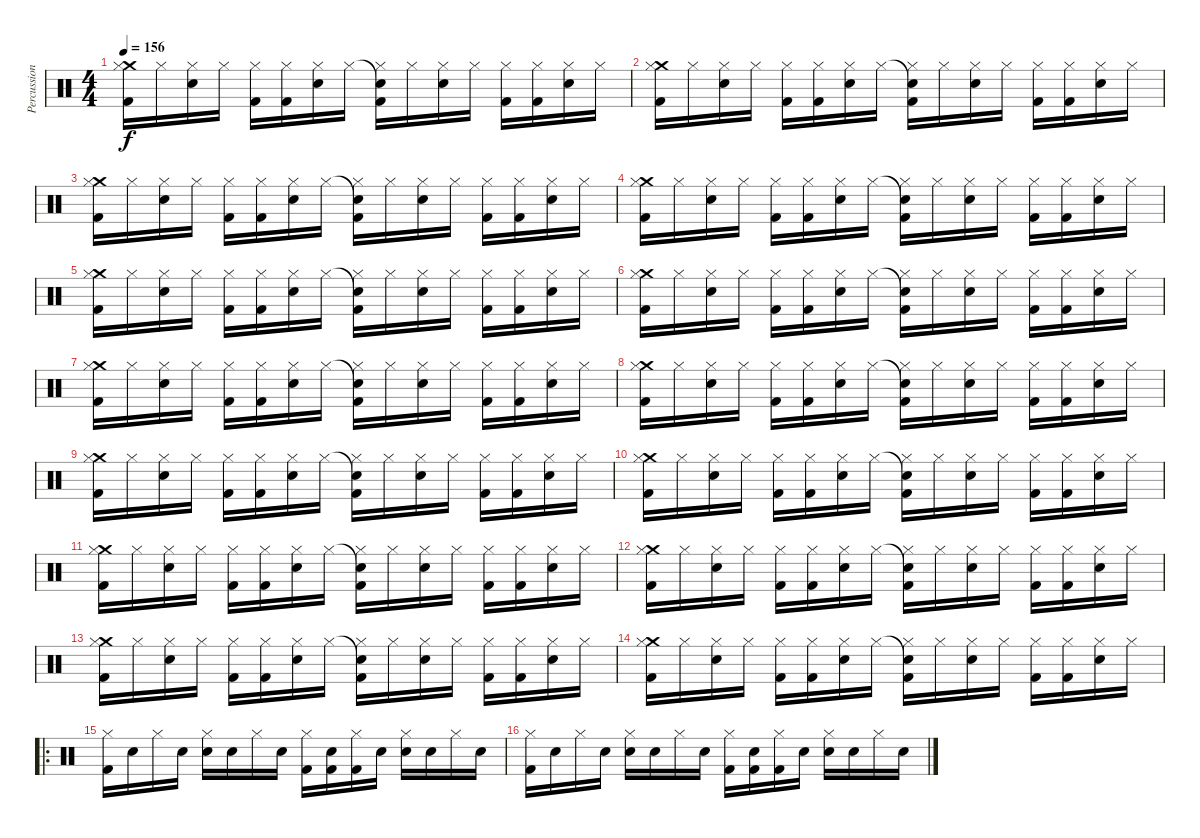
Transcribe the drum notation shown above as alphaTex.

\track ("Percussion" "Percussion") {instrument percussion}
\staff {score}
\articulation defaults
\ts (4 4)
\tempo 156
\clef neutral
\ks c
("Crash medium (hit)" "Hi-Hat (closed)" "Kick (hit) 2").16{dy f} "Hi-Hat (closed)".16 ("Hi-Hat (closed)" "Electric Snare (hit)").16 "Hi-Hat (closed)".16 ("Hi-Hat (closed)" "Kick (hit) 2").16 ("Hi-Hat (closed)" "Kick (hit) 2").16 ("Hi-Hat (closed)" "Electric Snare (hit)").16 "Hi-Hat (closed)".16 ("Snare (hit)"{t} "Hi-Hat (closed)" "Kick (hit) 2").16 "Hi-Hat (closed)".16 ("Hi-Hat (closed)" "Electric Snare (hit)").16 "Hi-Hat (closed)".16 ("Hi-Hat (closed)" "Kick (hit) 2").16 ("Hi-Hat (closed)" "Kick (hit) 2").16 ("Hi-Hat (closed)" "Electric Snare (hit)").16 "Hi-Hat (closed)".16 |
("Crash medium (hit)" "Hi-Hat (closed)" "Kick (hit) 2").16 "Hi-Hat (closed)".16 ("Hi-Hat (closed)" "Electric Snare (hit)").16 "Hi-Hat (closed)".16 ("Hi-Hat (closed)" "Kick (hit) 2").16 ("Hi-Hat (closed)" "Kick (hit) 2").16 ("Hi-Hat (closed)" "Electric Snare (hit)").16 "Hi-Hat (closed)".16 ("Snare (hit)"{t} "Hi-Hat (closed)" "Kick (hit) 2").16 "Hi-Hat (closed)".16 ("Hi-Hat (closed)" "Electric Snare (hit)").16 "Hi-Hat (closed)".16 ("Hi-Hat (closed)" "Kick (hit) 2").16 ("Hi-Hat (closed)" "Kick (hit) 2").16 ("Hi-Hat (closed)" "Electric Snare (hit)").16 "Hi-Hat (closed)".16 |
("Crash medium (hit)" "Hi-Hat (closed)" "Kick (hit) 2").16 "Hi-Hat (closed)".16 ("Hi-Hat (closed)" "Electric Snare (hit)").16 "Hi-Hat (closed)".16 ("Hi-Hat (closed)" "Kick (hit) 2").16 ("Hi-Hat (closed)" "Kick (hit) 2").16 ("Hi-Hat (closed)" "Electric Snare (hit)").16 "Hi-Hat (closed)".16 ("Snare (hit)"{t} "Hi-Hat (closed)" "Kick (hit) 2").16 "Hi-Hat (closed)".16 ("Hi-Hat (closed)" "Electric Snare (hit)").16 "Hi-Hat (closed)".16 ("Hi-Hat (closed)" "Kick (hit) 2").16 ("Hi-Hat (closed)" "Kick (hit) 2").16 ("Hi-Hat (closed)" "Electric Snare (hit)").16 "Hi-Hat (closed)".16 |
("Crash medium (hit)" "Hi-Hat (closed)" "Kick (hit) 2").16 "Hi-Hat (closed)".16 ("Hi-Hat (closed)" "Electric Snare (hit)").16 "Hi-Hat (closed)".16 ("Hi-Hat (closed)" "Kick (hit) 2").16 ("Hi-Hat (closed)" "Kick (hit) 2").16 ("Hi-Hat (closed)" "Electric Snare (hit)").16 "Hi-Hat (closed)".16 ("Snare (hit)"{t} "Hi-Hat (closed)" "Kick (hit) 2").16 "Hi-Hat (closed)".16 ("Hi-Hat (closed)" "Electric Snare (hit)").16 "Hi-Hat (closed)".16 ("Hi-Hat (closed)" "Kick (hit) 2").16 ("Hi-Hat (closed)" "Kick (hit) 2").16 ("Hi-Hat (closed)" "Electric Snare (hit)").16 "Hi-Hat (closed)".16 |
("Crash medium (hit)" "Hi-Hat (closed)" "Kick (hit) 2").16 "Hi-Hat (closed)".16 ("Hi-Hat (closed)" "Electric Snare (hit)").16 "Hi-Hat (closed)".16 ("Hi-Hat (closed)" "Kick (hit) 2").16 ("Hi-Hat (closed)" "Kick (hit) 2").16 ("Hi-Hat (closed)" "Electric Snare (hit)").16 "Hi-Hat (closed)".16 ("Snare (hit)"{t} "Hi-Hat (closed)" "Kick (hit) 2").16 "Hi-Hat (closed)".16 ("Hi-Hat (closed)" "Electric Snare (hit)").16 "Hi-Hat (closed)".16 ("Hi-Hat (closed)" "Kick (hit) 2").16 ("Hi-Hat (closed)" "Kick (hit) 2").16 ("Hi-Hat (closed)" "Electric Snare (hit)").16 "Hi-Hat (closed)".16 |
("Crash medium (hit)" "Hi-Hat (closed)" "Kick (hit) 2").16 "Hi-Hat (closed)".16 ("Hi-Hat (closed)" "Electric Snare (hit)").16 "Hi-Hat (closed)".16 ("Hi-Hat (closed)" "Kick (hit) 2").16 ("Hi-Hat (closed)" "Kick (hit) 2").16 ("Hi-Hat (closed)" "Electric Snare (hit)").16 "Hi-Hat (closed)".16 ("Snare (hit)"{t} "Hi-Hat (closed)" "Kick (hit) 2").16 "Hi-Hat (closed)".16 ("Hi-Hat (closed)" "Electric Snare (hit)").16 "Hi-Hat (closed)".16 ("Hi-Hat (closed)" "Kick (hit) 2").16 ("Hi-Hat (closed)" "Kick (hit) 2").16 ("Hi-Hat (closed)" "Electric Snare (hit)").16 "Hi-Hat (closed)".16 |
("Crash medium (hit)" "Hi-Hat (closed)" "Kick (hit) 2").16 "Hi-Hat (closed)".16 ("Hi-Hat (closed)" "Electric Snare (hit)").16 "Hi-Hat (closed)".16 ("Hi-Hat (closed)" "Kick (hit) 2").16 ("Hi-Hat (closed)" "Kick (hit) 2").16 ("Hi-Hat (closed)" "Electric Snare (hit)").16 "Hi-Hat (closed)".16 ("Snare (hit)"{t} "Hi-Hat (closed)" "Kick (hit) 2").16 "Hi-Hat (closed)".16 ("Hi-Hat (closed)" "Electric Snare (hit)").16 "Hi-Hat (closed)".16 ("Hi-Hat (closed)" "Kick (hit) 2").16 ("Hi-Hat (closed)" "Kick (hit) 2").16 ("Hi-Hat (closed)" "Electric Snare (hit)").16 "Hi-Hat (closed)".16 |
("Crash medium (hit)" "Hi-Hat (closed)" "Kick (hit) 2").16 "Hi-Hat (closed)".16 ("Hi-Hat (closed)" "Electric Snare (hit)").16 "Hi-Hat (closed)".16 ("Hi-Hat (closed)" "Kick (hit) 2").16 ("Hi-Hat (closed)" "Kick (hit) 2").16 ("Hi-Hat (closed)" "Electric Snare (hit)").16 "Hi-Hat (closed)".16 ("Snare (hit)"{t} "Hi-Hat (closed)" "Kick (hit) 2").16 "Hi-Hat (closed)".16 ("Hi-Hat (closed)" "Electric Snare (hit)").16 "Hi-Hat (closed)".16 ("Hi-Hat (closed)" "Kick (hit) 2").16 ("Hi-Hat (closed)" "Kick (hit) 2").16 ("Hi-Hat (closed)" "Electric Snare (hit)").16 "Hi-Hat (closed)".16 |
("Crash medium (hit)" "Hi-Hat (closed)" "Kick (hit) 2").16 "Hi-Hat (closed)".16 ("Hi-Hat (closed)" "Electric Snare (hit)").16 "Hi-Hat (closed)".16 ("Hi-Hat (closed)" "Kick (hit) 2").16 ("Hi-Hat (closed)" "Kick (hit) 2").16 ("Hi-Hat (closed)" "Electric Snare (hit)").16 "Hi-Hat (closed)".16 ("Snare (hit)"{t} "Hi-Hat (closed)" "Kick (hit) 2").16 "Hi-Hat (closed)".16 ("Hi-Hat (closed)" "Electric Snare (hit)").16 "Hi-Hat (closed)".16 ("Hi-Hat (closed)" "Kick (hit) 2").16 ("Hi-Hat (closed)" "Kick (hit) 2").16 ("Hi-Hat (closed)" "Electric Snare (hit)").16 "Hi-Hat (closed)".16 |
("Crash medium (hit)" "Hi-Hat (closed)" "Kick (hit) 2").16 "Hi-Hat (closed)".16 ("Hi-Hat (closed)" "Electric Snare (hit)").16 "Hi-Hat (closed)".16 ("Hi-Hat (closed)" "Kick (hit) 2").16 ("Hi-Hat (closed)" "Kick (hit) 2").16 ("Hi-Hat (closed)" "Electric Snare (hit)").16 "Hi-Hat (closed)".16 ("Snare (hit)"{t} "Hi-Hat (closed)" "Kick (hit) 2").16 "Hi-Hat (closed)".16 ("Hi-Hat (closed)" "Electric Snare (hit)").16 "Hi-Hat (closed)".16 ("Hi-Hat (closed)" "Kick (hit) 2").16 ("Hi-Hat (closed)" "Kick (hit) 2").16 ("Hi-Hat (closed)" "Electric Snare (hit)").16 "Hi-Hat (closed)".16 |
("Crash medium (hit)" "Hi-Hat (closed)" "Kick (hit) 2").16 "Hi-Hat (closed)".16 ("Hi-Hat (closed)" "Electric Snare (hit)").16 "Hi-Hat (closed)".16 ("Hi-Hat (closed)" "Kick (hit) 2").16 ("Hi-Hat (closed)" "Kick (hit) 2").16 ("Hi-Hat (closed)" "Electric Snare (hit)").16 "Hi-Hat (closed)".16 ("Snare (hit)"{t} "Hi-Hat (closed)" "Kick (hit) 2").16 "Hi-Hat (closed)".16 ("Hi-Hat (closed)" "Electric Snare (hit)").16 "Hi-Hat (closed)".16 ("Hi-Hat (closed)" "Kick (hit) 2").16 ("Hi-Hat (closed)" "Kick (hit) 2").16 ("Hi-Hat (closed)" "Electric Snare (hit)").16 "Hi-Hat (closed)".16 |
("Crash medium (hit)" "Hi-Hat (closed)" "Kick (hit) 2").16 "Hi-Hat (closed)".16 ("Hi-Hat (closed)" "Electric Snare (hit)").16 "Hi-Hat (closed)".16 ("Hi-Hat (closed)" "Kick (hit) 2").16 ("Hi-Hat (closed)" "Kick (hit) 2").16 ("Hi-Hat (closed)" "Electric Snare (hit)").16 "Hi-Hat (closed)".16 ("Snare (hit)"{t} "Hi-Hat (closed)" "Kick (hit) 2").16 "Hi-Hat (closed)".16 ("Hi-Hat (closed)" "Electric Snare (hit)").16 "Hi-Hat (closed)".16 ("Hi-Hat (closed)" "Kick (hit) 2").16 ("Hi-Hat (closed)" "Kick (hit) 2").16 ("Hi-Hat (closed)" "Electric Snare (hit)").16 "Hi-Hat (closed)".16 |
("Crash medium (hit)" "Hi-Hat (closed)" "Kick (hit) 2").16 "Hi-Hat (closed)".16 ("Hi-Hat (closed)" "Electric Snare (hit)").16 "Hi-Hat (closed)".16 ("Hi-Hat (closed)" "Kick (hit) 2").16 ("Hi-Hat (closed)" "Kick (hit) 2").16 ("Hi-Hat (closed)" "Electric Snare (hit)").16 "Hi-Hat (closed)".16 ("Snare (hit)"{t} "Hi-Hat (closed)" "Kick (hit) 2").16 "Hi-Hat (closed)".16 ("Hi-Hat (closed)" "Electric Snare (hit)").16 "Hi-Hat (closed)".16 ("Hi-Hat (closed)" "Kick (hit) 2").16 ("Hi-Hat (closed)" "Kick (hit) 2").16 ("Hi-Hat (closed)" "Electric Snare (hit)").16 "Hi-Hat (closed)".16 |
("Crash medium (hit)" "Hi-Hat (closed)" "Kick (hit) 2").16 "Hi-Hat (closed)".16 ("Hi-Hat (closed)" "Electric Snare (hit)").16 "Hi-Hat (closed)".16 ("Hi-Hat (closed)" "Kick (hit) 2").16 ("Hi-Hat (closed)" "Kick (hit) 2").16 ("Hi-Hat (closed)" "Electric Snare (hit)").16 "Hi-Hat (closed)".16 ("Snare (hit)"{t} "Hi-Hat (closed)" "Kick (hit) 2").16 "Hi-Hat (closed)".16 ("Hi-Hat (closed)" "Electric Snare (hit)").16 "Hi-Hat (closed)".16 ("Hi-Hat (closed)" "Kick (hit) 2").16 ("Hi-Hat (closed)" "Kick (hit) 2").16 ("Hi-Hat (closed)" "Electric Snare (hit)").16 "Hi-Hat (closed)".16 |
\ro
("Hi-Hat (closed)" "Kick (hit) 2").16 "Snare (hit)".16 "Hi-Hat (closed)".16 "Snare (hit)".16 ("Hi-Hat (closed)" "Snare (hit) 2").16 "Snare (hit)".16 "Hi-Hat (closed)".16 "Snare (hit)".16 ("Hi-Hat (closed)" "Kick (hit) 2").16 ("Snare (hit)" "Kick (hit) 2").16 ("Hi-Hat (closed)" "Kick (hit) 2").16 "Snare (hit)".16 ("Hi-Hat (closed)" "Snare (hit) 2").16 "Snare (hit)".16 "Hi-Hat (closed)".16 "Snare (hit)".16 |
("Hi-Hat (closed)" "Kick (hit) 2").16 "Snare (hit)".16 "Hi-Hat (closed)".16 "Snare (hit)".16 ("Hi-Hat (closed)" "Snare (hit) 2").16 "Snare (hit)".16 "Hi-Hat (closed)".16 "Snare (hit)".16 ("Hi-Hat (closed)" "Kick (hit) 2").16 ("Snare (hit)" "Kick (hit) 2").16 ("Hi-Hat (closed)" "Kick (hit) 2").16 "Snare (hit)".16 ("Hi-Hat (closed)" "Snare (hit) 2").16 "Snare (hit)".16 "Hi-Hat (closed)".16 "Snare (hit)".16
